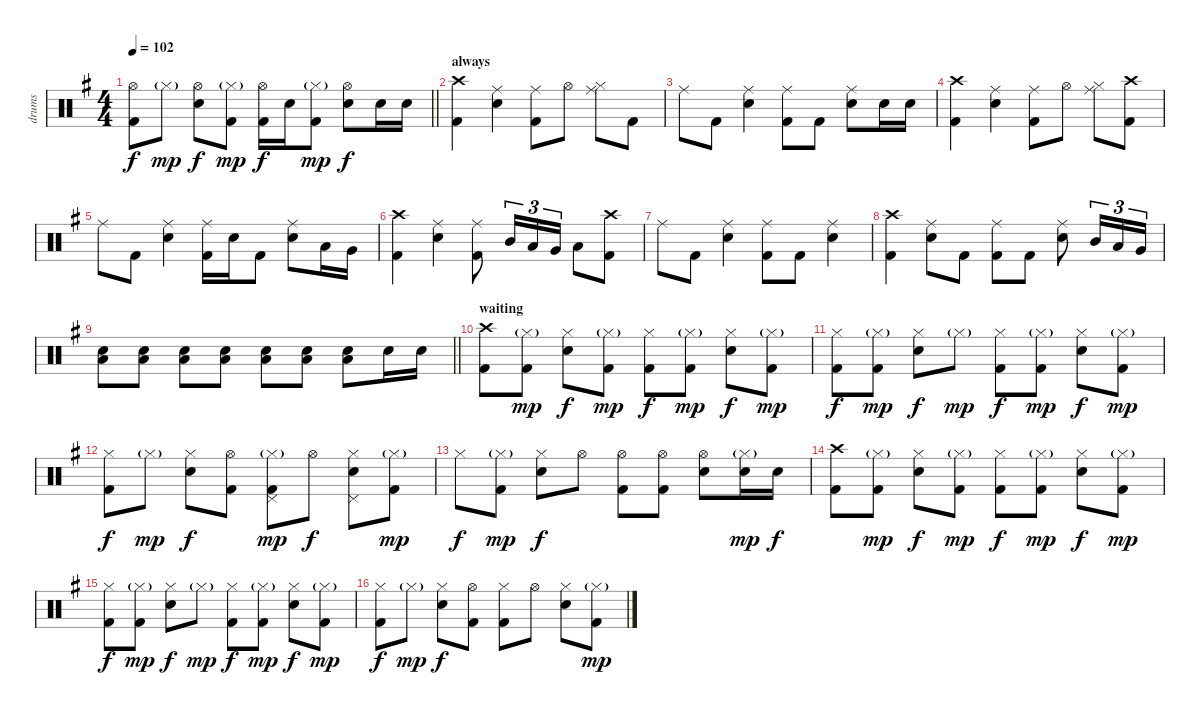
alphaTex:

\track ("drums" "drums") {instrument percussion}
\staff {score}
\articulation defaults
\ts (4 4)
\tempo 102
\clef neutral
\barLineRight lightlight
\ks eminor
("Hi-Hat (open)" "Kick (hit) 2").8{dy f} "Hi-Hat (closed)"{g}.8{dy mp} ("Hi-Hat (open)" "Snare (hit) 2").8{dy f} ("Hi-Hat (closed)"{g} "Kick (hit) 2").8{dy mp} ("Hi-Hat (open)" "Kick (hit) 2").16{dy f} "Snare (hit) 2".16 ("Hi-Hat (closed)"{g} "Kick (hit) 2").8{dy mp} ("Hi-Hat (open)" "Snare (hit) 2").8{dy f} "Snare (hit) 2".16 "Snare (hit) 2".16 |
\section ("" "always")
("Crash high (hit)" "Kick (hit) 2").4 ("Ride (middle)" "Snare (hit) 2").4 ("Ride (middle)" "Kick (hit) 2").8 "Hi-Hat (open)".8 ("Ride (middle)" "Hi-Hat (closed)").8 "Kick (hit) 2".8 |
"Ride (middle)".8 "Kick (hit) 2".8 ("Ride (middle)" "Snare (hit) 2").4 ("Ride (middle)" "Kick (hit) 2").8 "Kick (hit) 2".8 ("Ride (middle)" "Snare (hit) 2").8 "Snare (hit) 2".16 "Snare (hit) 2".16 |
("Crash high (hit)" "Kick (hit) 2").4 ("Ride (middle)" "Snare (hit) 2").4 ("Ride (middle)" "Kick (hit) 2").8 "Hi-Hat (open)".8 ("Ride (middle)" "Hi-Hat (closed)").8 ("Crash high (hit)" "Kick (hit) 2").8 |
"Ride (middle)".8 "Kick (hit) 2".8 ("Ride (middle)" "Snare (hit) 2").4 ("Ride (middle)" "Kick (hit) 2").16 "Snare (hit) 2".16 "Kick (hit) 2".8 ("Ride (middle)" "Snare (hit) 2").8 "Low Tom (hit)".16 "Very Low Tom (hit)".16 |
("Crash high (hit)" "Kick (hit) 2").4 ("Ride (middle)" "Snare (hit) 2").4 ("Ride (middle)" "Kick (hit) 2").8 "Mid Tom (hit)".16{tu (3 2)} "Low Tom (hit)".16{tu (3 2)} "Very Low Tom (hit)".16{tu (3 2)} "Low Floor Tom (hit)".8 ("Crash high (hit)" "Kick (hit) 2").8 |
"Ride (middle)".8 "Kick (hit) 2".8 ("Ride (middle)" "Snare (hit) 2").4 ("Ride (middle)" "Kick (hit) 2").8 "Kick (hit) 2".8 ("Ride (middle)" "Snare (hit) 2").4 |
("Crash high (hit)" "Kick (hit) 2").4 ("Ride (middle)" "Snare (hit) 2").8 "Kick (hit) 2".8 ("Ride (middle)" "Kick (hit) 2").8 "Kick (hit) 2".8 ("Ride (middle)" "Snare (hit) 2").8 "Mid Tom (hit)".16{tu (3 2)} "Low Tom (hit)".16{tu (3 2)} "Very Low Tom (hit)".16{tu (3 2)} |
\barLineRight lightlight
("Snare (hit) 2" "Low Tom (hit)").8 ("Snare (hit) 2" "Low Tom (hit)").8 ("Snare (hit) 2" "Low Tom (hit)").8 ("Snare (hit) 2" "Low Tom (hit)").8 ("Snare (hit) 2" "Low Tom (hit)").8 ("Snare (hit) 2" "Low Tom (hit)").8 ("Snare (hit) 2" "Low Tom (hit)").8 "Snare (hit) 2".16 "Snare (hit) 2".16 |
\section ("" "waiting")
("Crash high (hit)" "Kick (hit) 2").8 ("Hi-Hat (closed)"{g} "Kick (hit) 2").8{dy mp} ("Hi-Hat (closed)" "Snare (hit) 2").8{dy f} ("Hi-Hat (closed)"{g} "Kick (hit) 2").8{dy mp} ("Hi-Hat (closed)" "Kick (hit) 2").8{dy f} ("Hi-Hat (closed)"{g} "Kick (hit) 2").8{dy mp} ("Hi-Hat (closed)" "Snare (hit) 2").8{dy f} ("Hi-Hat (closed)"{g} "Kick (hit) 2").8{dy mp} |
("Hi-Hat (closed)" "Kick (hit) 2").8{dy f} ("Hi-Hat (closed)"{g} "Kick (hit) 2").8{dy mp} ("Hi-Hat (closed)" "Snare (hit) 2").8{dy f} "Hi-Hat (closed)"{g}.8{dy mp} ("Hi-Hat (closed)" "Kick (hit) 2").8{dy f} ("Hi-Hat (closed)"{g} "Kick (hit) 2").8{dy mp} ("Hi-Hat (closed)" "Snare (hit) 2").8{dy f} ("Hi-Hat (closed)"{g} "Kick (hit) 2").8{dy mp} |
("Hi-Hat (closed)" "Kick (hit) 2").8{dy f} "Hi-Hat (closed)"{g}.8{dy mp} ("Hi-Hat (closed)" "Snare (hit) 2").8{dy f} ("Hi-Hat (open)" "Kick (hit) 2").8 ("Hi-Hat (closed)"{g} "Pedal Hi-Hat (hit)" "Kick (hit) 2").8{dy mp} "Hi-Hat (open)".8{dy f} ("Hi-Hat (closed)" "Snare (hit) 2" "Pedal Hi-Hat (hit)").8 ("Hi-Hat (closed)"{g} "Kick (hit) 2").8{dy mp} |
"Hi-Hat (closed)".8{dy f} ("Hi-Hat (closed)"{g} "Kick (hit) 2").8{dy mp} ("Hi-Hat (closed)" "Snare (hit) 2").8{dy f} "Hi-Hat (open)".8 ("Hi-Hat (open)" "Kick (hit) 2").8 ("Hi-Hat (open)" "Kick (hit) 2").8 ("Hi-Hat (open)" "Snare (hit) 2").8 ("Hi-Hat (closed)"{g} "Snare (hit) 2").16{dy mp} "Snare (hit) 2".16{dy f} |
("Crash high (hit)" "Kick (hit) 2").8 ("Hi-Hat (closed)"{g} "Kick (hit) 2").8{dy mp} ("Hi-Hat (closed)" "Snare (hit) 2").8{dy f} ("Hi-Hat (closed)"{g} "Kick (hit) 2").8{dy mp} ("Hi-Hat (closed)" "Kick (hit) 2").8{dy f} ("Hi-Hat (closed)"{g} "Kick (hit) 2").8{dy mp} ("Hi-Hat (closed)" "Snare (hit) 2").8{dy f} ("Hi-Hat (closed)"{g} "Kick (hit) 2").8{dy mp} |
("Hi-Hat (closed)" "Kick (hit) 2").8{dy f} ("Hi-Hat (closed)"{g} "Kick (hit) 2").8{dy mp} ("Hi-Hat (closed)" "Snare (hit) 2").8{dy f} "Hi-Hat (closed)"{g}.8{dy mp} ("Hi-Hat (closed)" "Kick (hit) 2").8{dy f} ("Hi-Hat (closed)"{g} "Kick (hit) 2").8{dy mp} ("Hi-Hat (closed)" "Snare (hit) 2").8{dy f} ("Hi-Hat (closed)"{g} "Kick (hit) 2").8{dy mp} |
("Hi-Hat (closed)" "Kick (hit) 2").8{dy f} "Hi-Hat (closed)"{g}.8{dy mp} ("Hi-Hat (closed)" "Snare (hit) 2").8{dy f} ("Hi-Hat (open)" "Kick (hit) 2").8 ("Hi-Hat (closed)" "Kick (hit) 2").8 "Hi-Hat (open)".8 ("Hi-Hat (closed)" "Snare (hit) 2").8 ("Hi-Hat (closed)"{g} "Kick (hit) 2").8{dy mp}
